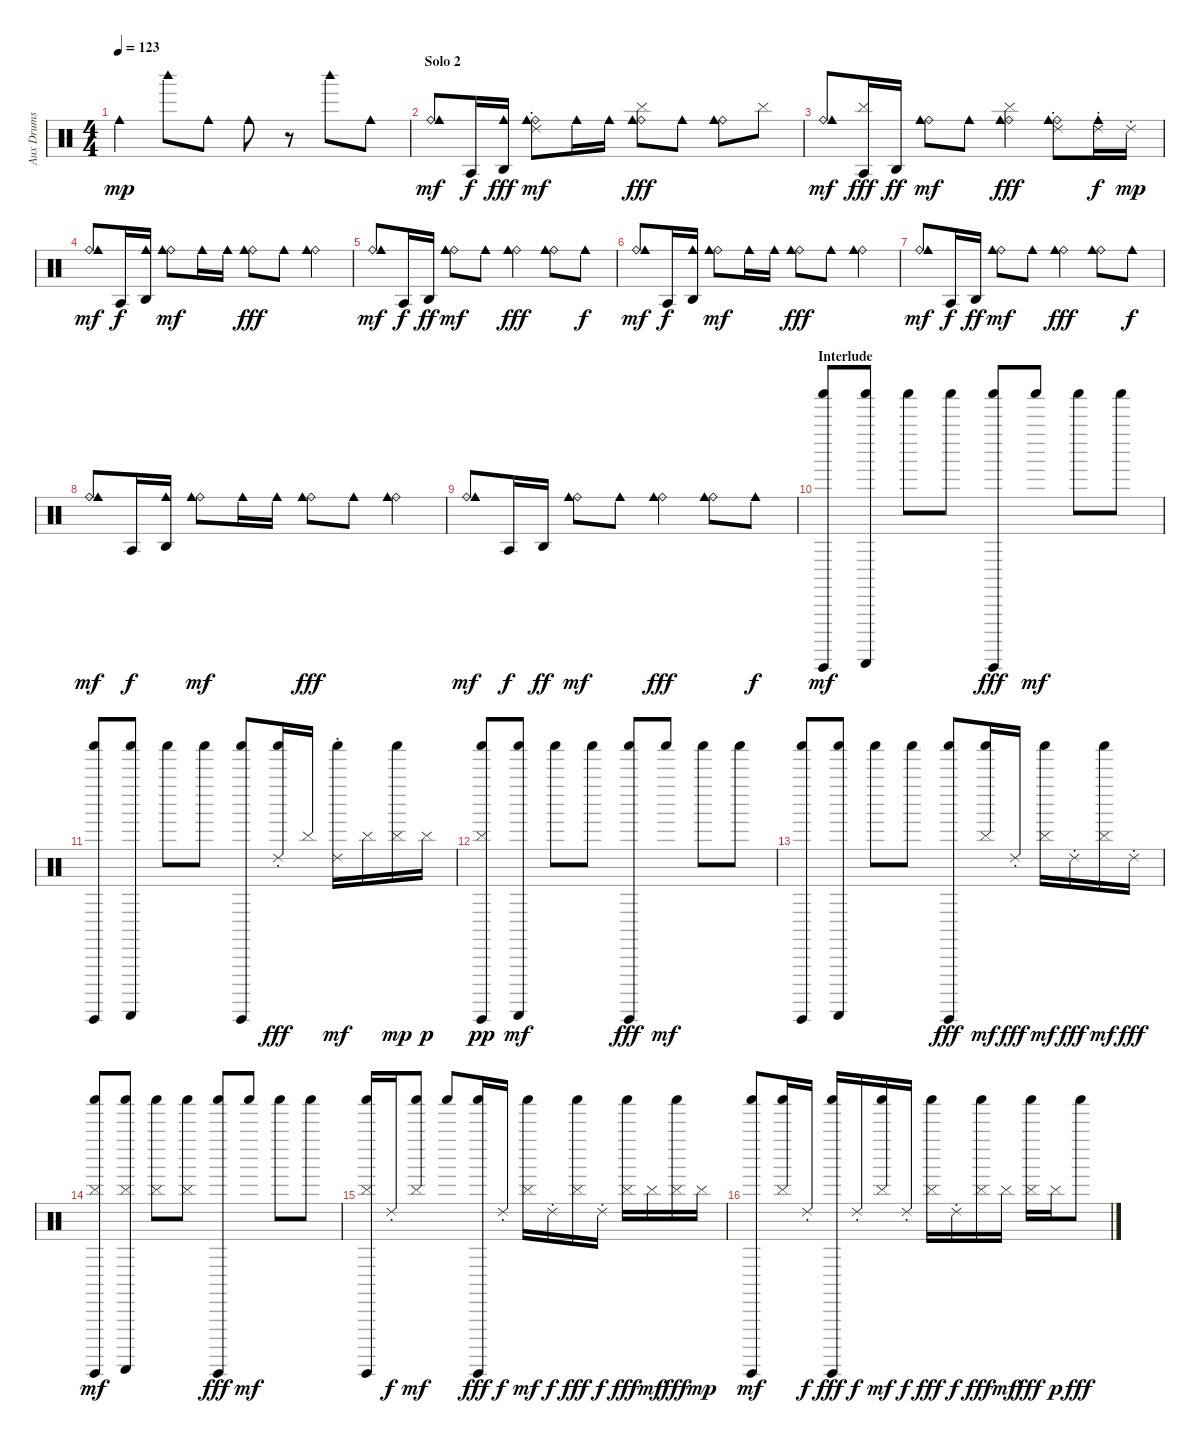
\track ("Aux Drums" "Aux Drums") {instrument percussion}
\staff {score}
\articulation defaults
\ts (4 4)
\tempo 123
\clef neutral
\ks c "Cowbell medium (hit)".4{dy mp} "Woodblock high (hit)".8 "Cowbell medium (hit)".8 "Cowbell medium (hit)".8
r.8 "Woodblock high (hit)".8 "Cowbell medium (hit)".8 |
\section ("" "Solo 2")
("Ride (bell)" "Cowbell medium (hit)").8{dy mf} "Agogo tow (hit)".16{dy f} ("Agogo high (hit)" "Cowbell medium (hit)").16{dy fff} ("Ride (choke) 2" "Ride (bell)" "Cowbell medium (hit)").8{dy mf} "Cowbell medium (hit)".16 "Cowbell medium (hit)".16 ("Cymbal (hit)" "Ride (bell)" "Cowbell medium (hit)").8{dy fff} "Cowbell medium (hit)".8 ("Ride (bell)" "Cowbell medium (hit)").8 "Cymbal (hit)".8 |
("Ride (bell)" "Cowbell medium (hit)").8{dy mf} ("Cymbal (hit)" "Agogo tow (hit)").16{dy fff} "Agogo high (hit)".16{dy ff} ("Ride (bell)" "Cowbell medium (hit)").8{dy mf} "Cowbell medium (hit)".8 ("Cymbal (hit)" "Ride (bell)" "Cowbell medium (hit)").4{dy fff} ("Ride (choke) 2" "Ride (bell)" "Cowbell medium (hit)").8 ("Ride (choke) 2" "Cowbell medium (hit)").16{dy f} "Ride (choke) 2".16{dy mp} |
("Ride (bell)" "Cowbell medium (hit)").8{dy mf} "Agogo tow (hit)".16{dy f} ("Agogo high (hit)" "Cowbell medium (hit)").16 ("Ride (bell)" "Cowbell medium (hit)").8{dy mf} "Cowbell medium (hit)".16 "Cowbell medium (hit)".16 ("Ride (bell)" "Cowbell medium (hit)").8{dy fff} "Cowbell medium (hit)".8 ("Ride (bell)" "Cowbell medium (hit)").4 |
("Ride (bell)" "Cowbell medium (hit)").8{dy mf} "Agogo tow (hit)".16{dy f} "Agogo high (hit)".16{dy ff} ("Ride (bell)" "Cowbell medium (hit)").8{dy mf} "Cowbell medium (hit)".8 ("Ride (bell)" "Cowbell medium (hit)").4{dy fff} ("Ride (bell)" "Cowbell medium (hit)").8 "Cowbell medium (hit)".8{dy f} |
("Ride (bell)" "Cowbell medium (hit)").8{dy mf} "Agogo tow (hit)".16{dy f} ("Agogo high (hit)" "Cowbell medium (hit)").16 ("Ride (bell)" "Cowbell medium (hit)").8{dy mf} "Cowbell medium (hit)".16 "Cowbell medium (hit)".16 ("Ride (bell)" "Cowbell medium (hit)").8{dy fff} "Cowbell medium (hit)".8 ("Ride (bell)" "Cowbell medium (hit)").4 |
("Ride (bell)" "Cowbell medium (hit)").8{dy mf} "Agogo tow (hit)".16{dy f} "Agogo high (hit)".16{dy ff} ("Ride (bell)" "Cowbell medium (hit)").8{dy mf} "Cowbell medium (hit)".8 ("Ride (bell)" "Cowbell medium (hit)").4{dy fff} ("Ride (bell)" "Cowbell medium (hit)").8 "Cowbell medium (hit)".8{dy f} |
("Ride (bell)" "Cowbell medium (hit)").8{dy mf} "Agogo tow (hit)".16{dy f} ("Agogo high (hit)" "Cowbell medium (hit)").16 ("Ride (bell)" "Cowbell medium (hit)").8{dy mf} "Cowbell medium (hit)".16 "Cowbell medium (hit)".16 ("Ride (bell)" "Cowbell medium (hit)").8{dy fff} "Cowbell medium (hit)".8 ("Ride (bell)" "Cowbell medium (hit)").4 |
("Ride (bell)" "Cowbell medium (hit)").8{dy mf} "Agogo tow (hit)".16{dy f} "Agogo high (hit)".16{dy ff} ("Ride (bell)" "Cowbell medium (hit)").8{dy mf} "Cowbell medium (hit)".8 ("Ride (bell)" "Cowbell medium (hit)").4{dy fff} ("Ride (bell)" "Cowbell medium (hit)").8 "Cowbell medium (hit)".8{dy f} |
\section ("" "Interlude")
("Shaker (hit)" "Guiro (hit)").8{dy mf volume 14} ("Shaker (hit)" "Guiro (scrap-return)").8 "Shaker (hit)".8 "Shaker (hit)".8 ("Shaker (hit)" "Guiro (hit)").8{dy fff} "Shaker (hit)".8{dy mf} "Shaker (hit)".8 "Shaker (hit)".8 |
("Shaker (hit)" "Guiro (hit)").8 ("Shaker (hit)" "Guiro (scrap-return)").8 "Shaker (hit)".8 "Shaker (hit)".8 ("Shaker (hit)" "Guiro (hit)").8 ("Shaker (hit)" "Ride (choke) 2").16{dy fff} "Cymbal (hit)".16 ("Shaker (hit)" "Ride (choke) 2").16{dy mf} "Cymbal (hit)".16 ("Shaker (hit)" "Cymbal (hit)").16{dy mp} "Cymbal (hit)".16{dy p} |
("Shaker (hit)" "Guiro (hit)" "Cymbal (hit)").8{dy pp} ("Shaker (hit)" "Guiro (scrap-return)").8{dy mf} "Shaker (hit)".8 "Shaker (hit)".8 ("Shaker (hit)" "Guiro (hit)").8{dy fff} "Shaker (hit)".8{dy mf} "Shaker (hit)".8 "Shaker (hit)".8 |
("Shaker (hit)" "Guiro (hit)").8 ("Shaker (hit)" "Guiro (scrap-return)").8 "Shaker (hit)".8 "Shaker (hit)".8 ("Shaker (hit)" "Guiro (hit)").8{dy fff} ("Cymbal (hit)" "Shaker (hit)").16{dy mf} "Ride (choke) 2".16{dy fff} ("Cymbal (hit)" "Shaker (hit)").16{dy mf} "Ride (choke) 2".16{dy fff} ("Cymbal (hit)" "Shaker (hit)").16{dy mf} "Ride (choke) 2".16{dy fff} |
\section ("" "")
("Cymbal (hit)" "Shaker (hit)" "Guiro (hit)").8{dy mf} ("Cymbal (hit)" "Shaker (hit)" "Guiro (scrap-return)").8 ("Cymbal (hit)" "Shaker (hit)").8 ("Cymbal (hit)" "Shaker (hit)").8 ("Shaker (hit)" "Guiro (hit)").8{dy fff} "Shaker (hit)".8{dy mf} "Shaker (hit)".8 "Shaker (hit)".8 |
("Cymbal (hit)" "Shaker (hit)" "Guiro (hit)").16 "Ride (choke) 2".16{dy f} ("Cymbal (hit)" "Shaker (hit)").8{dy mf} "Shaker (hit)".8 ("Shaker (hit)" "Guiro (hit)").16{dy fff} "Ride (choke) 2".16{dy f} ("Cymbal (hit)" "Shaker (hit)").16{dy mf} "Ride (choke) 2".16{dy f} ("Cymbal (hit)" "Shaker (hit)").16{dy fff} "Ride (choke) 2".16{dy f} ("Cymbal (hit)" "Shaker (hit)").16{dy fff} "Cymbal (hit)".16{dy mf} ("Cymbal (hit)" "Shaker (hit)").16{dy fff} "Cymbal (hit)".16{dy mp} |
("Shaker (hit)" "Guiro (hit)").8{dy mf} ("Cymbal (hit)" "Shaker (hit)").16 "Ride (choke) 2".16{dy f} ("Shaker (hit)" "Guiro (hit)").16{dy fff} "Ride (choke) 2".16{dy f} ("Cymbal (hit)" "Shaker (hit)").16{dy mf} "Ride (choke) 2".16{dy f} ("Cymbal (hit)" "Shaker (hit)").16{dy fff} "Ride (choke) 2".16{dy f} ("Cymbal (hit)" "Shaker (hit)").16{dy fff} "Cymbal (hit)".16{dy mf} ("Cymbal (hit)" "Shaker (hit)").16{dy fff} "Cymbal (hit)".16{dy p} "Shaker (hit)".8{dy fff}
